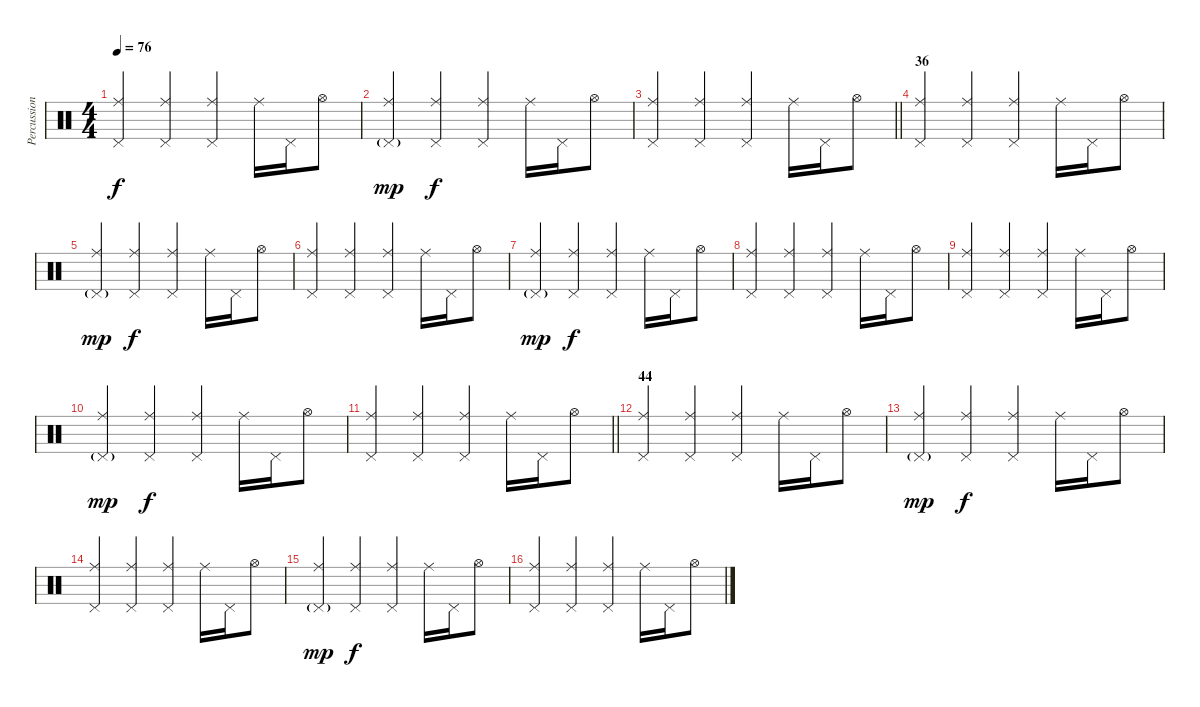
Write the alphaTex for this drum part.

\track ("Percussion" "Percussion") {instrument percussion}
\staff {score}
\articulation defaults
\ts (4 4)
\tempo 76
\clef neutral
\ks c
("Ride (middle)" "Pedal Hi-Hat (hit)").4{dy f} ("Ride (middle)" "Pedal Hi-Hat (hit)").4 ("Ride (middle)" "Pedal Hi-Hat (hit)").4 "Ride (middle)".16 "Pedal Hi-Hat (hit)".16 "Hi-Hat (open)".8 |
("Ride (middle)" "Pedal Hi-Hat (hit)"{g}).4{dy mp} ("Ride (middle)" "Pedal Hi-Hat (hit)").4{dy f} ("Ride (middle)" "Pedal Hi-Hat (hit)").4 "Ride (middle)".16 "Pedal Hi-Hat (hit)".16 "Hi-Hat (open)".8 |
\barLineRight lightlight
("Ride (middle)" "Pedal Hi-Hat (hit)").4 ("Ride (middle)" "Pedal Hi-Hat (hit)").4 ("Ride (middle)" "Pedal Hi-Hat (hit)").4 "Ride (middle)".16 "Pedal Hi-Hat (hit)".16 "Hi-Hat (open)".8 |
\section ("" "36")
("Ride (middle)" "Pedal Hi-Hat (hit)").4 ("Ride (middle)" "Pedal Hi-Hat (hit)").4 ("Ride (middle)" "Pedal Hi-Hat (hit)").4 "Ride (middle)".16 "Pedal Hi-Hat (hit)".16 "Hi-Hat (open)".8 |
("Ride (middle)" "Pedal Hi-Hat (hit)"{g}).4{dy mp} ("Ride (middle)" "Pedal Hi-Hat (hit)").4{dy f} ("Ride (middle)" "Pedal Hi-Hat (hit)").4 "Ride (middle)".16 "Pedal Hi-Hat (hit)".16 "Hi-Hat (open)".8 |
("Ride (middle)" "Pedal Hi-Hat (hit)").4 ("Ride (middle)" "Pedal Hi-Hat (hit)").4 ("Ride (middle)" "Pedal Hi-Hat (hit)").4 "Ride (middle)".16 "Pedal Hi-Hat (hit)".16 "Hi-Hat (open)".8 |
("Ride (middle)" "Pedal Hi-Hat (hit)"{g}).4{dy mp} ("Ride (middle)" "Pedal Hi-Hat (hit)").4{dy f} ("Ride (middle)" "Pedal Hi-Hat (hit)").4 "Ride (middle)".16 "Pedal Hi-Hat (hit)".16 "Hi-Hat (open)".8 |
("Ride (middle)" "Pedal Hi-Hat (hit)").4 ("Ride (middle)" "Pedal Hi-Hat (hit)").4 ("Ride (middle)" "Pedal Hi-Hat (hit)").4 "Ride (middle)".16 "Pedal Hi-Hat (hit)".16 "Hi-Hat (open)".8 |
("Ride (middle)" "Pedal Hi-Hat (hit)").4 ("Ride (middle)" "Pedal Hi-Hat (hit)").4 ("Ride (middle)" "Pedal Hi-Hat (hit)").4 "Ride (middle)".16 "Pedal Hi-Hat (hit)".16 "Hi-Hat (open)".8 |
("Ride (middle)" "Pedal Hi-Hat (hit)"{g}).4{dy mp} ("Ride (middle)" "Pedal Hi-Hat (hit)").4{dy f} ("Ride (middle)" "Pedal Hi-Hat (hit)").4 "Ride (middle)".16 "Pedal Hi-Hat (hit)".16 "Hi-Hat (open)".8 |
\barLineRight lightlight
("Ride (middle)" "Pedal Hi-Hat (hit)").4 ("Ride (middle)" "Pedal Hi-Hat (hit)").4 ("Ride (middle)" "Pedal Hi-Hat (hit)").4 "Ride (middle)".16 "Pedal Hi-Hat (hit)".16 "Hi-Hat (open)".8 |
\section ("" "44")
("Ride (middle)" "Pedal Hi-Hat (hit)").4 ("Ride (middle)" "Pedal Hi-Hat (hit)").4 ("Ride (middle)" "Pedal Hi-Hat (hit)").4 "Ride (middle)".16 "Pedal Hi-Hat (hit)".16 "Hi-Hat (open)".8 |
("Ride (middle)" "Pedal Hi-Hat (hit)"{g}).4{dy mp} ("Ride (middle)" "Pedal Hi-Hat (hit)").4{dy f} ("Ride (middle)" "Pedal Hi-Hat (hit)").4 "Ride (middle)".16 "Pedal Hi-Hat (hit)".16 "Hi-Hat (open)".8 |
("Ride (middle)" "Pedal Hi-Hat (hit)").4 ("Ride (middle)" "Pedal Hi-Hat (hit)").4 ("Ride (middle)" "Pedal Hi-Hat (hit)").4 "Ride (middle)".16 "Pedal Hi-Hat (hit)".16 "Hi-Hat (open)".8 |
("Ride (middle)" "Pedal Hi-Hat (hit)"{g}).4{dy mp} ("Ride (middle)" "Pedal Hi-Hat (hit)").4{dy f} ("Ride (middle)" "Pedal Hi-Hat (hit)").4 "Ride (middle)".16 "Pedal Hi-Hat (hit)".16 "Hi-Hat (open)".8 |
("Ride (middle)" "Pedal Hi-Hat (hit)").4 ("Ride (middle)" "Pedal Hi-Hat (hit)").4 ("Ride (middle)" "Pedal Hi-Hat (hit)").4 "Ride (middle)".16 "Pedal Hi-Hat (hit)".16 "Hi-Hat (open)".8
